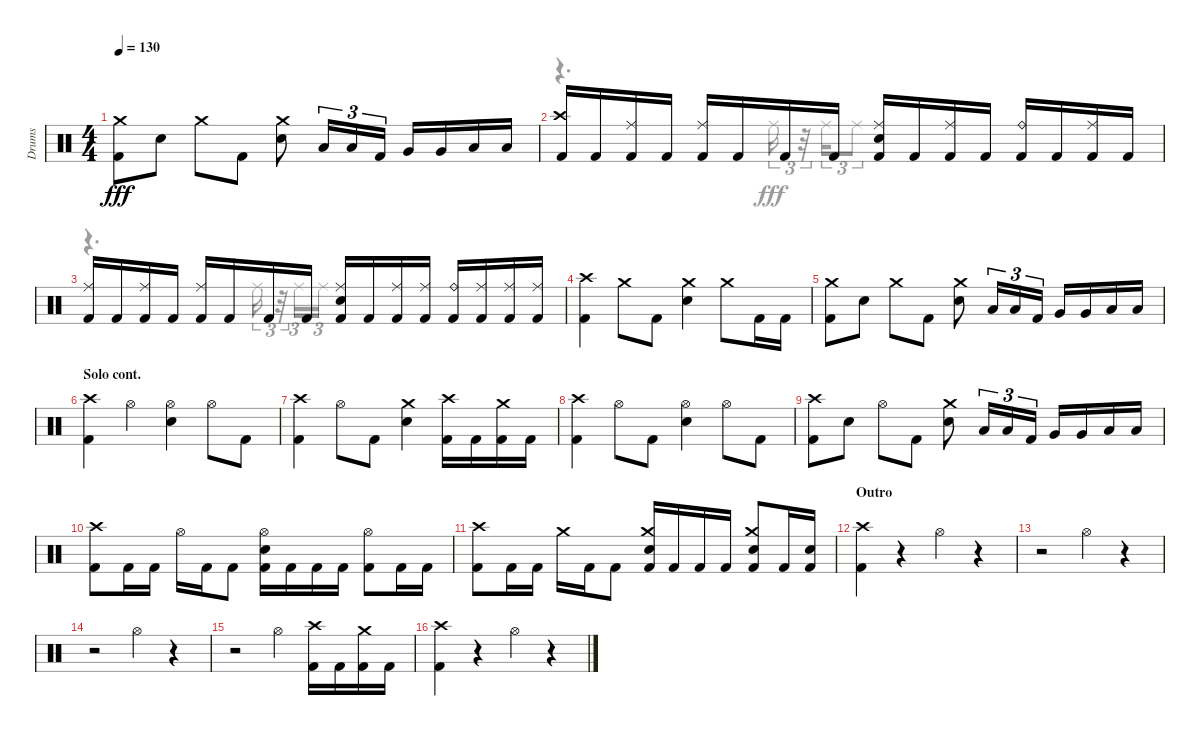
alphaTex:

\track ("Drums" "Drums") {instrument percussion}
\staff {score}
\articulation defaults
\voice
\ts (4 4)
\tempo 130
\clef neutral
\ks aminor
("Kick (hit) 2" "Crash medium (hit)").8{dy fff} "Snare (hit) 2".8 "Crash medium (hit)".8 "Kick (hit) 2".8 ("Snare (hit) 2" "Crash medium (hit)").8 "Low Tom (hit)".16{tu (3 2)} "Low Tom (hit)".16{tu (3 2)} "Kick (hit) 2".16{tu (3 2)} "Very Low Tom (hit)".16 "Very Low Tom (hit)".16 "Low Floor Tom (hit)".16 "Low Floor Tom (hit)".16 |
("Kick (hit) 2" "Crash high (hit)").16 "Kick (hit) 2".16 ("Kick (hit) 2" "Ride (middle)").16 "Kick (hit) 2".16 ("Kick (hit) 2" "Ride (middle)").16 "Kick (hit) 2".16 "Kick (hit) 2".16 "Kick (hit) 2".16 ("Kick (hit) 2" "Snare (hit) 2" "Ride (middle)").16 "Kick (hit) 2".16 ("Kick (hit) 2" "Ride (middle)").16 "Kick (hit) 2".16 ("Kick (hit) 2" "Ride (bell)").16 "Kick (hit) 2".16 ("Kick (hit) 2" "Ride (middle)").16 "Kick (hit) 2".16 |
("Kick (hit) 2" "Ride (middle)").16 "Kick (hit) 2".16 ("Kick (hit) 2" "Ride (middle)").16 "Kick (hit) 2".16 ("Kick (hit) 2" "Ride (middle)").16 "Kick (hit) 2".16 "Kick (hit) 2".16 "Kick (hit) 2".16 ("Kick (hit) 2" "Snare (hit) 2" "Ride (middle)").16 "Kick (hit) 2".16 ("Kick (hit) 2" "Ride (middle)").16 ("Kick (hit) 2" "Ride (middle)").16 ("Kick (hit) 2" "Ride (bell)").16 ("Kick (hit) 2" "Ride (middle)").16 ("Kick (hit) 2" "Ride (middle)").16 ("Kick (hit) 2" "Ride (middle)").16 |
("Kick (hit) 2" "Crash high (hit)").4 "Crash medium (hit)".8 "Kick (hit) 2".8 ("Snare (hit) 2" "Crash medium (hit)").4 "Crash medium (hit)".8 "Kick (hit) 2".16 "Kick (hit) 2".16 |
("Kick (hit) 2" "Crash medium (hit)").8 "Snare (hit) 2".8 "Crash medium (hit)".8 "Kick (hit) 2".8 ("Snare (hit) 2" "Crash medium (hit)").8 "Low Tom (hit)".16{tu (3 2)} "Low Tom (hit)".16{tu (3 2)} "Kick (hit) 2".16{tu (3 2)} "Very Low Tom (hit)".16 "Very Low Tom (hit)".16 "Low Floor Tom (hit)".16 "Low Floor Tom (hit)".16 |
\section ("" "Solo cont.")
("Kick (hit) 2" "Crash high (hit)").4 "Hi-Hat (open)".4 ("Snare (hit) 2" "Hi-Hat (open)").4 "Hi-Hat (open)".8 "Kick (hit) 2".8 |
("Kick (hit) 2" "Crash high (hit)").4 "Hi-Hat (open)".8 "Kick (hit) 2".8 ("Snare (hit) 2" "Crash medium (hit)").4 ("Kick (hit) 2" "Crash high (hit)").16 "Kick (hit) 2".16 ("Kick (hit) 2" "Crash medium (hit)").16 "Kick (hit) 2".16 |
("Kick (hit) 2" "Crash high (hit)").4 "Hi-Hat (open)".8 "Kick (hit) 2".8 ("Snare (hit) 2" "Hi-Hat (open)").4 "Hi-Hat (open)".8 "Kick (hit) 2".8 |
("Kick (hit) 2" "Crash high (hit)").8 "Snare (hit) 2".8 "Hi-Hat (open)".8 "Kick (hit) 2".8 ("Snare (hit) 2" "Crash medium (hit)").8 "Low Tom (hit)".16{tu (3 2)} "Low Tom (hit)".16{tu (3 2)} "Kick (hit) 2".16{tu (3 2)} "Very Low Tom (hit)".16 "Very Low Tom (hit)".16 "Low Floor Tom (hit)".16 "Low Floor Tom (hit)".16 |
("Kick (hit) 2" "Crash high (hit)").8 "Kick (hit) 2".16 "Kick (hit) 2".16 "Hi-Hat (open)".16 "Kick (hit) 2".16 "Kick (hit) 2".8 ("Hi-Hat (open)" "Kick (hit) 2" "Snare (hit) 2").16 "Kick (hit) 2".16 "Kick (hit) 2".16 "Kick (hit) 2".16 ("Kick (hit) 2" "Hi-Hat (open)").8 "Kick (hit) 2".16 "Kick (hit) 2".16 |
("Kick (hit) 2" "Crash high (hit)").8 "Kick (hit) 2".16 "Kick (hit) 2".16 "Crash medium (hit)".16 "Kick (hit) 2".16 "Kick (hit) 2".8 ("Kick (hit) 2" "Snare (hit) 2" "Crash medium (hit)").16 "Kick (hit) 2".16 "Kick (hit) 2".16 "Kick (hit) 2".16 ("Kick (hit) 2" "Snare (hit) 2" "Crash medium (hit)").8 "Kick (hit) 2".16 ("Kick (hit) 2" "Snare (hit) 2").16 |
\section ("" "Outro")
("Kick (hit) 2" "Crash high (hit)").4 r.4 "Hi-Hat (open)".4 r.4 |
r.2 "Hi-Hat (open)".4 r.4 |
r.2 "Hi-Hat (open)".4 r.4 |
r.2 "Hi-Hat (open)".4 ("Kick (hit) 2" "Crash high (hit)").16 "Kick (hit) 2".16 ("Kick (hit) 2" "Crash medium (hit)").16 "Kick (hit) 2".16 |
("Kick (hit) 2" "Crash high (hit)").4 r.4 "Hi-Hat (open)".4 r.4
\voice
\clef neutral
\ottava regular
\simile none
\ks aminor
|
r.4{d} "Ride (middle)".16{tu (3 2) dy fff} r.32{tu (3 2)} "Ride (middle)".16{tu (3 2)} "Ride (middle)".8{tu (3 2)} |
r.4{d} "Ride (middle)".16{tu (3 2)} r.32{tu (3 2)} "Ride (middle)".16{tu (3 2)} "Ride (middle)".16{tu (3 2)} |
|
|
|
|
|
|
|
|
|
|
|
|
